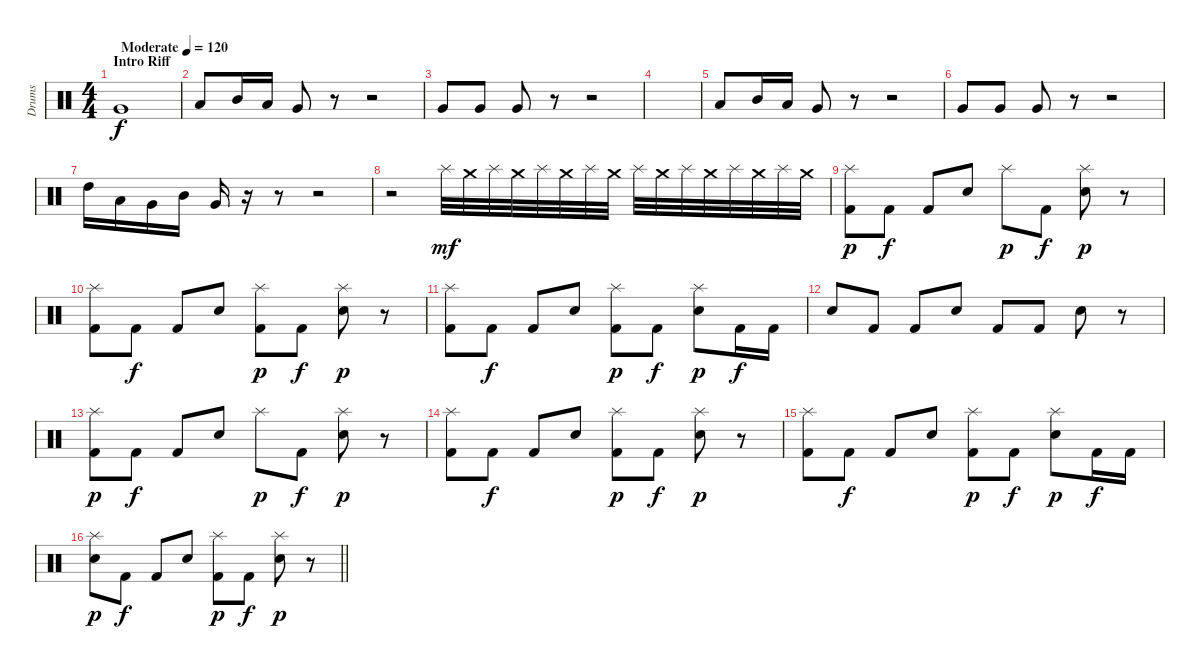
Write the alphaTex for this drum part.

\track ("Drums" "Drums") {instrument percussion}
\staff {score}
\articulation defaults
\ts (4 4)
\section ("" "Intro Riff")
\tempo (120 "Moderate")
\tempo 208
\tempo (120 "Moderate")
\clef neutral
\ks c "Very Low Tom (hit)".1{dy f}
|
"Low Tom (hit)".8 "Mid Tom (hit)".16 "Low Tom (hit)".16 "Very Low Tom (hit)".8 r.8 r.2 |
"Very Low Tom (hit)".8 "Very Low Tom (hit)".8 "Very Low Tom (hit)".8 r.8 r.2 |
|
"Low Tom (hit)".8 "Mid Tom (hit)".16 "Low Tom (hit)".16 "Very Low Tom (hit)".8 r.8 r.2 |
"Very Low Tom (hit)".8 "Very Low Tom (hit)".8 "Very Low Tom (hit)".8 r.8 r.2 |
"High Tom (hit)".16 "Low Tom (hit)".16 "Very Low Tom (hit)".16 "Mid Tom (hit)".16 "Very Low Tom (hit)".16 r.16 r.8 r.2 |
r.2 "Splash (hit)".32{dy mf volume 4} "Crash medium (hit)".32{volume 9} "Splash (hit)".32 "Crash medium (hit)".32 "Splash (hit)".32 "Crash medium (hit)".32 "Splash (hit)".32 "Crash medium (hit)".32 "Splash (hit)".32 "Crash medium (hit)".32 "Splash (hit)".32 "Crash medium (hit)".32 "Splash (hit)".32 "Crash medium (hit)".32 "Splash (hit)".32 "Crash medium (hit)".32 |
("Kick (hit) 2" "Splash (hit)").8{dy p volume 11} "Kick (hit) 2".8{dy f} "Kick (hit) 2".8 "Snare (hit) 2".8 "Splash (hit)".8{dy p} "Kick (hit) 2".8{dy f} ("Splash (hit)" "Snare (hit) 2").8{dy p} r.8 |
("Kick (hit) 2" "Splash (hit)").8 "Kick (hit) 2".8{dy f} "Kick (hit) 2".8 "Snare (hit) 2".8 ("Kick (hit) 2" "Splash (hit)").8{dy p} "Kick (hit) 2".8{dy f} ("Splash (hit)" "Snare (hit) 2").8{dy p} r.8 |
("Kick (hit) 2" "Splash (hit)").8 "Kick (hit) 2".8{dy f} "Kick (hit) 2".8 "Snare (hit) 2".8 ("Kick (hit) 2" "Splash (hit)").8{dy p} "Kick (hit) 2".8{dy f} ("Splash (hit)" "Snare (hit) 2").8{dy p} "Kick (hit) 2".16{dy f} "Kick (hit) 2".16 |
"Snare (hit) 2".8 "Kick (hit) 2".8 "Kick (hit) 2".8 "Snare (hit) 2".8 "Kick (hit) 2".8 "Kick (hit) 2".8 "Snare (hit) 2".8 r.8 |
("Kick (hit) 2" "Splash (hit)").8{dy p} "Kick (hit) 2".8{dy f} "Kick (hit) 2".8 "Snare (hit) 2".8 "Splash (hit)".8{dy p} "Kick (hit) 2".8{dy f} ("Splash (hit)" "Snare (hit) 2").8{dy p} r.8 |
("Kick (hit) 2" "Splash (hit)").8 "Kick (hit) 2".8{dy f} "Kick (hit) 2".8 "Snare (hit) 2".8 ("Kick (hit) 2" "Splash (hit)").8{dy p} "Kick (hit) 2".8{dy f} ("Splash (hit)" "Snare (hit) 2").8{dy p} r.8 |
("Kick (hit) 2" "Splash (hit)").8 "Kick (hit) 2".8{dy f} "Kick (hit) 2".8 "Snare (hit) 2".8 ("Kick (hit) 2" "Splash (hit)").8{dy p} "Kick (hit) 2".8{dy f} ("Splash (hit)" "Snare (hit) 2").8{dy p} "Kick (hit) 2".16{dy f} "Kick (hit) 2".16 |
\barLineRight lightlight
("Splash (hit)" "Snare (hit) 2").8{dy p} "Kick (hit) 2".8{dy f} "Kick (hit) 2".8 "Snare (hit) 2".8 ("Kick (hit) 2" "Splash (hit)").8{dy p} "Kick (hit) 2".8{dy f} ("Splash (hit)" "Snare (hit) 2").8{dy p} r.8
